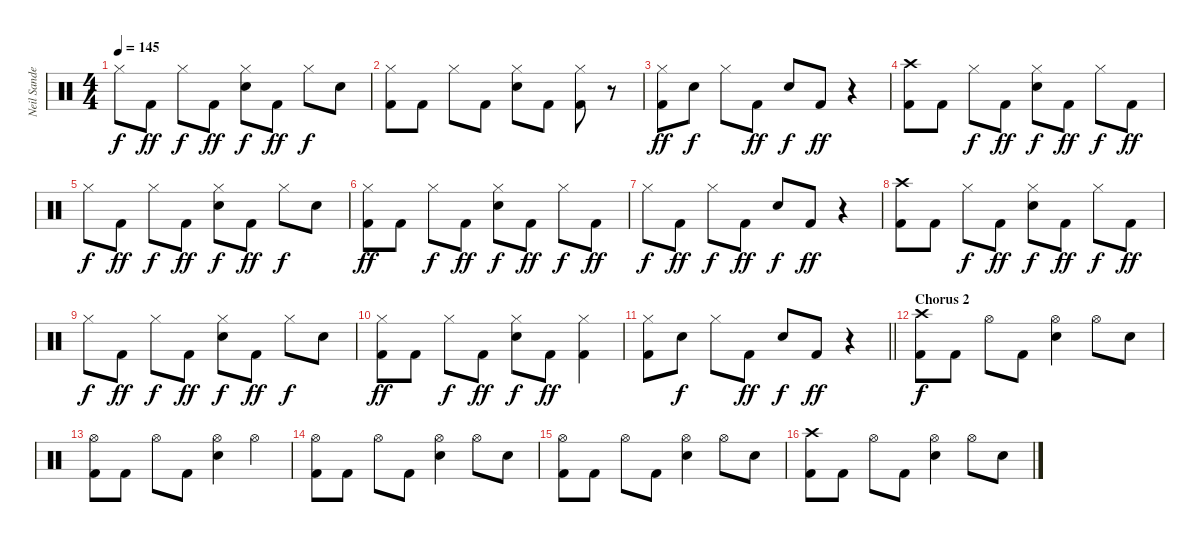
\track ("Neil Sanderson" "Neil Sande") {instrument percussion}
\staff {score}
\articulation defaults
\ts (4 4)
\tempo 145
\clef neutral
\ks c "Hi-Hat (closed)".8{dy f} "Kick (hit) 2".8{dy ff} "Hi-Hat (closed)".8{dy f} "Kick (hit) 2".8{dy ff}
("Hi-Hat (closed)" "Electric Snare (hit)").8{dy f} "Kick (hit) 2".8{dy ff} "Hi-Hat (closed)".8{dy f} "Electric Snare (hit)".8 |
("Hi-Hat (closed)" "Kick (hit) 2").8 "Kick (hit) 2".8 "Hi-Hat (closed)".8 "Kick (hit) 2".8 ("Hi-Hat (closed)" "Electric Snare (hit)").8 "Kick (hit) 2".8 ("Hi-Hat (closed)" "Kick (hit) 2").8 r.8 |
("Hi-Hat (closed)" "Kick (hit) 2").8{dy ff} "Electric Snare (hit)".8{dy f} "Hi-Hat (closed)".8 "Kick (hit) 2".8{dy ff} "Electric Snare (hit)".8{dy f} "Kick (hit) 2".8{dy ff} r.4 |
("Crash high (hit)" "Kick (hit) 2").8 "Kick (hit) 2".8 "Hi-Hat (closed)".8{dy f} "Kick (hit) 2".8{dy ff} ("Hi-Hat (closed)" "Electric Snare (hit)").8{dy f} "Kick (hit) 2".8{dy ff} "Hi-Hat (closed)".8{dy f} "Kick (hit) 2".8{dy ff} |
"Hi-Hat (closed)".8{dy f} "Kick (hit) 2".8{dy ff} "Hi-Hat (closed)".8{dy f} "Kick (hit) 2".8{dy ff} ("Hi-Hat (closed)" "Electric Snare (hit)").8{dy f} "Kick (hit) 2".8{dy ff} "Hi-Hat (closed)".8{dy f} "Electric Snare (hit)".8 |
("Hi-Hat (closed)" "Kick (hit) 2").8{dy ff} "Kick (hit) 2".8 "Hi-Hat (closed)".8{dy f} "Kick (hit) 2".8{dy ff} ("Hi-Hat (closed)" "Electric Snare (hit)").8{dy f} "Kick (hit) 2".8{dy ff} "Hi-Hat (closed)".8{dy f} "Kick (hit) 2".8{dy ff} |
"Hi-Hat (closed)".8{dy f} "Kick (hit) 2".8{dy ff} "Hi-Hat (closed)".8{dy f} "Kick (hit) 2".8{dy ff} "Electric Snare (hit)".8{dy f} "Kick (hit) 2".8{dy ff} r.4 |
("Crash high (hit)" "Kick (hit) 2").8 "Kick (hit) 2".8 "Hi-Hat (closed)".8{dy f} "Kick (hit) 2".8{dy ff} ("Hi-Hat (closed)" "Electric Snare (hit)").8{dy f} "Kick (hit) 2".8{dy ff} "Hi-Hat (closed)".8{dy f} "Kick (hit) 2".8{dy ff} |
"Hi-Hat (closed)".8{dy f} "Kick (hit) 2".8{dy ff} "Hi-Hat (closed)".8{dy f} "Kick (hit) 2".8{dy ff} ("Hi-Hat (closed)" "Electric Snare (hit)").8{dy f} "Kick (hit) 2".8{dy ff} "Hi-Hat (closed)".8{dy f} "Electric Snare (hit)".8 |
("Hi-Hat (closed)" "Kick (hit) 2").8{dy ff} "Kick (hit) 2".8 "Hi-Hat (closed)".8{dy f} "Kick (hit) 2".8{dy ff} ("Hi-Hat (closed)" "Electric Snare (hit)").8{dy f} "Kick (hit) 2".8{dy ff} ("Hi-Hat (closed)" "Kick (hit) 2").4 |
\barLineRight lightlight
("Hi-Hat (closed)" "Kick (hit) 2").8 "Electric Snare (hit)".8{dy f} "Hi-Hat (closed)".8 "Kick (hit) 2".8{dy ff} "Electric Snare (hit)".8{dy f} "Kick (hit) 2".8{dy ff} r.4 |
\section ("" "Chorus 2")
("Crash high (hit)" "Kick (hit) 2").8{dy f} "Kick (hit) 2".8 "Hi-Hat (open)".8 "Kick (hit) 2".8 ("Hi-Hat (open)" "Electric Snare (hit)").4 "Hi-Hat (open)".8 "Electric Snare (hit)".8 |
("Hi-Hat (open)" "Kick (hit) 2").8 "Kick (hit) 2".8 "Hi-Hat (open)".8 "Kick (hit) 2".8 ("Hi-Hat (open)" "Electric Snare (hit)").4 "Hi-Hat (open)".4 |
("Hi-Hat (open)" "Kick (hit) 2").8 "Kick (hit) 2".8 "Hi-Hat (open)".8 "Kick (hit) 2".8 ("Hi-Hat (open)" "Electric Snare (hit)").4 "Hi-Hat (open)".8 "Electric Snare (hit)".8 |
("Hi-Hat (open)" "Kick (hit) 2").8 "Kick (hit) 2".8 "Hi-Hat (open)".8 "Kick (hit) 2".8 ("Hi-Hat (open)" "Electric Snare (hit)").4 "Hi-Hat (open)".8 "Electric Snare (hit)".8 |
("Crash high (hit)" "Kick (hit) 2").8 "Kick (hit) 2".8 "Hi-Hat (open)".8 "Kick (hit) 2".8 ("Hi-Hat (open)" "Electric Snare (hit)").4 "Hi-Hat (open)".8 "Electric Snare (hit)".8
